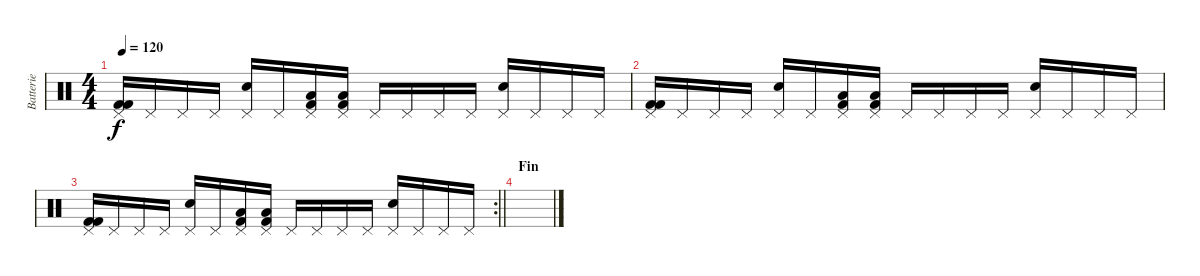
\track ("Batterie" "Batterie") {instrument percussion}
\staff {score}
\articulation defaults
\ts (4 4)
\tempo 120
\clef neutral
\ks c
("Pedal Hi-Hat (hit)" "Kick (hit) 2" "Kick (hit) 2").16{dy f} "Pedal Hi-Hat (hit)".16 "Pedal Hi-Hat (hit)".16 "Pedal Hi-Hat (hit)".16 ("Pedal Hi-Hat (hit)" "Electric Snare (hit)").16 "Pedal Hi-Hat (hit)".16 ("Pedal Hi-Hat (hit)" "Low Floor Tom (hit)" "Kick (hit) 2").16 ("Pedal Hi-Hat (hit)" "Low Floor Tom (hit)" "Kick (hit) 2").16 "Pedal Hi-Hat (hit)".16 "Pedal Hi-Hat (hit)".16 "Pedal Hi-Hat (hit)".16 "Pedal Hi-Hat (hit)".16 ("Pedal Hi-Hat (hit)" "Electric Snare (hit)").16 "Pedal Hi-Hat (hit)".16 "Pedal Hi-Hat (hit)".16 "Pedal Hi-Hat (hit)".16 |
("Pedal Hi-Hat (hit)" "Kick (hit) 2" "Kick (hit) 2").16 "Pedal Hi-Hat (hit)".16 "Pedal Hi-Hat (hit)".16 "Pedal Hi-Hat (hit)".16 ("Pedal Hi-Hat (hit)" "Electric Snare (hit)").16 "Pedal Hi-Hat (hit)".16 ("Pedal Hi-Hat (hit)" "Low Floor Tom (hit)" "Kick (hit) 2").16 ("Pedal Hi-Hat (hit)" "Low Floor Tom (hit)" "Kick (hit) 2").16 "Pedal Hi-Hat (hit)".16 "Pedal Hi-Hat (hit)".16 "Pedal Hi-Hat (hit)".16 "Pedal Hi-Hat (hit)".16 ("Pedal Hi-Hat (hit)" "Electric Snare (hit)").16 "Pedal Hi-Hat (hit)".16 "Pedal Hi-Hat (hit)".16 "Pedal Hi-Hat (hit)".16 |
\rc 2
\barLineRight lightlight
("Pedal Hi-Hat (hit)" "Kick (hit) 2" "Kick (hit) 2").16 "Pedal Hi-Hat (hit)".16 "Pedal Hi-Hat (hit)".16 "Pedal Hi-Hat (hit)".16 ("Pedal Hi-Hat (hit)" "Electric Snare (hit)").16 "Pedal Hi-Hat (hit)".16 ("Pedal Hi-Hat (hit)" "Low Floor Tom (hit)" "Kick (hit) 2").16 ("Pedal Hi-Hat (hit)" "Low Floor Tom (hit)" "Kick (hit) 2").16 "Pedal Hi-Hat (hit)".16 "Pedal Hi-Hat (hit)".16 "Pedal Hi-Hat (hit)".16 "Pedal Hi-Hat (hit)".16 ("Pedal Hi-Hat (hit)" "Electric Snare (hit)").16 "Pedal Hi-Hat (hit)".16 "Pedal Hi-Hat (hit)".16 "Pedal Hi-Hat (hit)".16 |
\section ("" "Fin")
